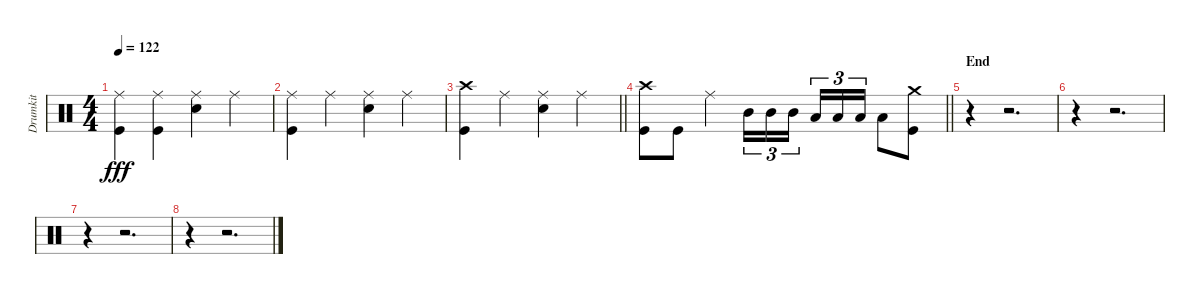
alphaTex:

\track ("Drumkit" "Drumkit") {instrument percussion}
\staff {score}
\articulation defaults
\ts (4 4)
\tempo 122
\clef neutral
\ks c
("Ride (middle)" "Kick (hit)").4{dy fff} ("Ride (middle)" "Kick (hit)").4 ("Ride (middle)" "Snare (hit) 2").4 "Ride (middle)".4 |
("Ride (middle)" "Kick (hit)").4 "Ride (middle)".4 ("Ride (middle)" "Snare (hit) 2").4 "Ride (middle)".4 |
\barLineRight lightlight
("Kick (hit)" "Crash high (hit)").4 "Ride (middle)".4 ("Ride (middle)" "Snare (hit) 2").4 "Ride (middle)".4 |
\barLineRight lightlight
("Kick (hit)" "Crash high (hit)").8 "Kick (hit)".8 "Ride (middle)".4 "Mid Tom (hit)".16{tu (3 2)} "Mid Tom (hit)".16{tu (3 2)} "Mid Tom (hit)".16{tu (3 2) beam splitsecondary} "Low Tom (hit)".16{tu (3 2)} "Low Tom (hit)".16{tu (3 2)} "Low Tom (hit)".16{tu (3 2)} "Low Tom (hit)".8 ("Crash medium (hit)" "Kick (hit)").8 |
\section ("" "End")
r.4 r.2{d} |
r.4 r.2{d} |
r.4 r.2{d} |
r.4 r.2{d}
